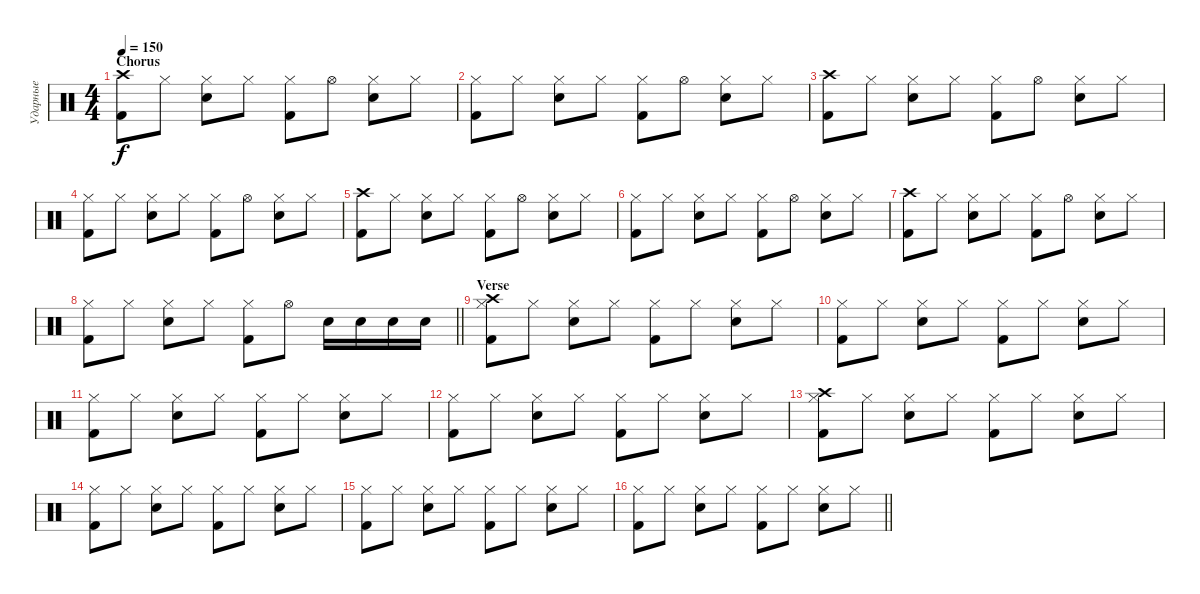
\track ("Ударные" "Ударные") {instrument percussion}
\staff {score}
\articulation defaults
\ts (4 4)
\section ("" "Chorus")
\tempo 150
\clef neutral
\ks c
("Crash high (hit)" "Kick (hit) 2").8{dy f} "Hi-Hat (closed)".8 ("Hi-Hat (closed)" "Electric Snare (hit)").8 "Hi-Hat (closed)".8 ("Hi-Hat (closed)" "Kick (hit) 2").8 "Hi-Hat (open)".8 ("Hi-Hat (closed)" "Electric Snare (hit)").8 "Hi-Hat (closed)".8 |
("Hi-Hat (closed)" "Kick (hit) 2").8 "Hi-Hat (closed)".8 ("Hi-Hat (closed)" "Electric Snare (hit)").8 "Hi-Hat (closed)".8 ("Hi-Hat (closed)" "Kick (hit) 2").8 "Hi-Hat (open)".8 ("Hi-Hat (closed)" "Electric Snare (hit)").8 "Hi-Hat (closed)".8 |
("Crash high (hit)" "Kick (hit) 2").8 "Hi-Hat (closed)".8 ("Hi-Hat (closed)" "Electric Snare (hit)").8 "Hi-Hat (closed)".8 ("Hi-Hat (closed)" "Kick (hit) 2").8 "Hi-Hat (open)".8 ("Hi-Hat (closed)" "Electric Snare (hit)").8 "Hi-Hat (closed)".8 |
("Hi-Hat (closed)" "Kick (hit) 2").8 "Hi-Hat (closed)".8 ("Hi-Hat (closed)" "Electric Snare (hit)").8 "Hi-Hat (closed)".8 ("Hi-Hat (closed)" "Kick (hit) 2").8 "Hi-Hat (open)".8 ("Hi-Hat (closed)" "Electric Snare (hit)").8 "Hi-Hat (closed)".8 |
("Crash high (hit)" "Kick (hit) 2").8 "Hi-Hat (closed)".8 ("Hi-Hat (closed)" "Electric Snare (hit)").8 "Hi-Hat (closed)".8 ("Hi-Hat (closed)" "Kick (hit) 2").8 "Hi-Hat (open)".8 ("Hi-Hat (closed)" "Electric Snare (hit)").8 "Hi-Hat (closed)".8 |
("Hi-Hat (closed)" "Kick (hit) 2").8 "Hi-Hat (closed)".8 ("Hi-Hat (closed)" "Electric Snare (hit)").8 "Hi-Hat (closed)".8 ("Hi-Hat (closed)" "Kick (hit) 2").8 "Hi-Hat (open)".8 ("Hi-Hat (closed)" "Electric Snare (hit)").8 "Hi-Hat (closed)".8 |
("Crash high (hit)" "Kick (hit) 2").8 "Hi-Hat (closed)".8 ("Hi-Hat (closed)" "Electric Snare (hit)").8 "Hi-Hat (closed)".8 ("Hi-Hat (closed)" "Kick (hit) 2").8 "Hi-Hat (open)".8 ("Hi-Hat (closed)" "Electric Snare (hit)").8 "Hi-Hat (closed)".8 |
\barLineRight lightlight
("Hi-Hat (closed)" "Kick (hit) 2").8 "Hi-Hat (closed)".8 ("Hi-Hat (closed)" "Electric Snare (hit)").8 "Hi-Hat (closed)".8 ("Hi-Hat (closed)" "Kick (hit) 2").8 "Hi-Hat (open)".8 "Electric Snare (hit)".16 "Electric Snare (hit)".16 "Electric Snare (hit)".16 "Electric Snare (hit)".16 |
\section ("" "Verse")
("Crash high (hit)" "Hi-Hat (closed)" "Kick (hit) 2").8 "Hi-Hat (closed)".8 ("Hi-Hat (closed)" "Electric Snare (hit)").8 "Hi-Hat (closed)".8 ("Hi-Hat (closed)" "Kick (hit) 2").8 "Hi-Hat (closed)".8 ("Hi-Hat (closed)" "Electric Snare (hit)").8 "Hi-Hat (closed)".8 |
("Hi-Hat (closed)" "Kick (hit) 2").8 "Hi-Hat (closed)".8 ("Hi-Hat (closed)" "Electric Snare (hit)").8 "Hi-Hat (closed)".8 ("Hi-Hat (closed)" "Kick (hit) 2").8 "Hi-Hat (closed)".8 ("Hi-Hat (closed)" "Electric Snare (hit)").8 "Hi-Hat (closed)".8 |
("Hi-Hat (closed)" "Kick (hit) 2").8 "Hi-Hat (closed)".8 ("Hi-Hat (closed)" "Electric Snare (hit)").8 "Hi-Hat (closed)".8 ("Hi-Hat (closed)" "Kick (hit) 2").8 "Hi-Hat (closed)".8 ("Hi-Hat (closed)" "Electric Snare (hit)").8 "Hi-Hat (closed)".8 |
("Hi-Hat (closed)" "Kick (hit) 2").8 "Hi-Hat (closed)".8 ("Hi-Hat (closed)" "Electric Snare (hit)").8 "Hi-Hat (closed)".8 ("Hi-Hat (closed)" "Kick (hit) 2").8 "Hi-Hat (closed)".8 ("Hi-Hat (closed)" "Electric Snare (hit)").8 "Hi-Hat (closed)".8 |
("Crash high (hit)" "Hi-Hat (closed)" "Kick (hit) 2").8 "Hi-Hat (closed)".8 ("Hi-Hat (closed)" "Electric Snare (hit)").8 "Hi-Hat (closed)".8 ("Hi-Hat (closed)" "Kick (hit) 2").8 "Hi-Hat (closed)".8 ("Hi-Hat (closed)" "Electric Snare (hit)").8 "Hi-Hat (closed)".8 |
("Hi-Hat (closed)" "Kick (hit) 2").8 "Hi-Hat (closed)".8 ("Hi-Hat (closed)" "Electric Snare (hit)").8 "Hi-Hat (closed)".8 ("Hi-Hat (closed)" "Kick (hit) 2").8 "Hi-Hat (closed)".8 ("Hi-Hat (closed)" "Electric Snare (hit)").8 "Hi-Hat (closed)".8 |
("Hi-Hat (closed)" "Kick (hit) 2").8 "Hi-Hat (closed)".8 ("Hi-Hat (closed)" "Electric Snare (hit)").8 "Hi-Hat (closed)".8 ("Hi-Hat (closed)" "Kick (hit) 2").8 "Hi-Hat (closed)".8 ("Hi-Hat (closed)" "Electric Snare (hit)").8 "Hi-Hat (closed)".8 |
\barLineRight lightlight
("Hi-Hat (closed)" "Kick (hit) 2").8 "Hi-Hat (closed)".8 ("Hi-Hat (closed)" "Electric Snare (hit)").8 "Hi-Hat (closed)".8 ("Hi-Hat (closed)" "Kick (hit) 2").8 "Hi-Hat (closed)".8 ("Hi-Hat (closed)" "Electric Snare (hit)").8 "Hi-Hat (closed)".8
